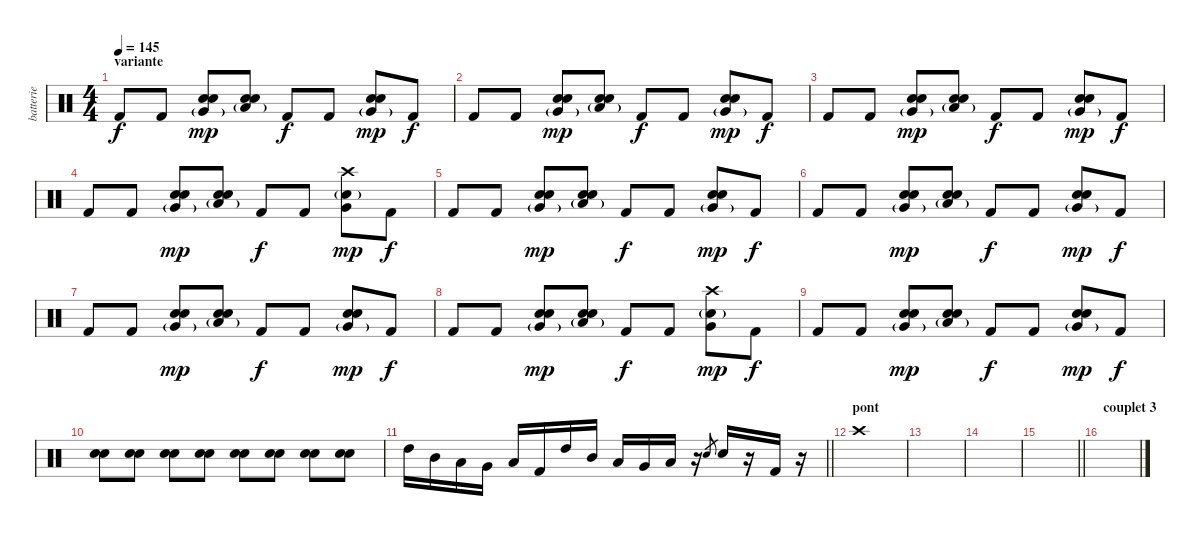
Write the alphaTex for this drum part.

\track ("batterie" "batterie") {instrument percussion}
\staff {score}
\articulation defaults
\ts (4 4)
\section ("" "variante")
\tempo 145
\clef neutral
\ks c "Kick (hit) 2".8{dy f} "Kick (hit) 2".8
("Very Low Tom (hit)"{g} "Electric Snare (hit)" "Snare (hit) 2").8{dy mp} ("Low Floor Tom (hit)"{g} "Electric Snare (hit)" "Snare (hit) 2").8 "Kick (hit) 2".8{dy f} "Kick (hit) 2".8 ("Very Low Tom (hit)"{g} "Electric Snare (hit)" "Snare (hit) 2").8{dy mp} "Kick (hit) 2".8{dy f} |
"Kick (hit) 2".8 "Kick (hit) 2".8 ("Very Low Tom (hit)"{g} "Electric Snare (hit)" "Snare (hit) 2").8{dy mp} ("Low Floor Tom (hit)"{g} "Electric Snare (hit)" "Snare (hit) 2").8 "Kick (hit) 2".8{dy f} "Kick (hit) 2".8 ("Very Low Tom (hit)"{g} "Electric Snare (hit)" "Snare (hit) 2").8{dy mp} "Kick (hit) 2".8{dy f} |
"Kick (hit) 2".8 "Kick (hit) 2".8 ("Very Low Tom (hit)"{g} "Electric Snare (hit)" "Snare (hit) 2").8{dy mp} ("Low Floor Tom (hit)"{g} "Electric Snare (hit)" "Snare (hit) 2").8 "Kick (hit) 2".8{dy f} "Kick (hit) 2".8 ("Very Low Tom (hit)"{g} "Electric Snare (hit)" "Snare (hit) 2").8{dy mp} "Kick (hit) 2".8{dy f} |
"Kick (hit) 2".8 "Kick (hit) 2".8 ("Very Low Tom (hit)"{g} "Electric Snare (hit)" "Snare (hit) 2").8{dy mp} ("Low Floor Tom (hit)"{g} "Electric Snare (hit)" "Snare (hit) 2").8 "Kick (hit) 2".8{dy f} "Kick (hit) 2".8 ("Crash high (hit)" "Very Low Tom (hit)" "Snare (hit) 2"{g}).8{dy mp} "Kick (hit) 2".8{dy f} |
"Kick (hit) 2".8 "Kick (hit) 2".8 ("Very Low Tom (hit)"{g} "Electric Snare (hit)" "Snare (hit) 2").8{dy mp} ("Low Floor Tom (hit)"{g} "Electric Snare (hit)" "Snare (hit) 2").8 "Kick (hit) 2".8{dy f} "Kick (hit) 2".8 ("Very Low Tom (hit)"{g} "Electric Snare (hit)" "Snare (hit) 2").8{dy mp} "Kick (hit) 2".8{dy f} |
"Kick (hit) 2".8 "Kick (hit) 2".8 ("Very Low Tom (hit)"{g} "Electric Snare (hit)" "Snare (hit) 2").8{dy mp} ("Low Floor Tom (hit)"{g} "Electric Snare (hit)" "Snare (hit) 2").8 "Kick (hit) 2".8{dy f} "Kick (hit) 2".8 ("Very Low Tom (hit)"{g} "Electric Snare (hit)" "Snare (hit) 2").8{dy mp} "Kick (hit) 2".8{dy f} |
"Kick (hit) 2".8 "Kick (hit) 2".8 ("Very Low Tom (hit)"{g} "Electric Snare (hit)" "Snare (hit) 2").8{dy mp} ("Low Floor Tom (hit)"{g} "Electric Snare (hit)" "Snare (hit) 2").8 "Kick (hit) 2".8{dy f} "Kick (hit) 2".8 ("Very Low Tom (hit)"{g} "Electric Snare (hit)" "Snare (hit) 2").8{dy mp} "Kick (hit) 2".8{dy f} |
"Kick (hit) 2".8 "Kick (hit) 2".8 ("Very Low Tom (hit)"{g} "Electric Snare (hit)" "Snare (hit) 2").8{dy mp} ("Low Floor Tom (hit)"{g} "Electric Snare (hit)" "Snare (hit) 2").8 "Kick (hit) 2".8{dy f} "Kick (hit) 2".8 ("Crash high (hit)" "Very Low Tom (hit)" "Snare (hit) 2"{g}).8{dy mp} "Kick (hit) 2".8{dy f} |
"Kick (hit) 2".8 "Kick (hit) 2".8 ("Very Low Tom (hit)"{g} "Electric Snare (hit)" "Snare (hit) 2").8{dy mp} ("Low Floor Tom (hit)"{g} "Electric Snare (hit)" "Snare (hit) 2").8 "Kick (hit) 2".8{dy f} "Kick (hit) 2".8 ("Very Low Tom (hit)"{g} "Electric Snare (hit)" "Snare (hit) 2").8{dy mp} "Kick (hit) 2".8{dy f} |
("Electric Snare (hit)" "Snare (hit) 2").8 ("Electric Snare (hit)" "Snare (hit) 2").8 ("Electric Snare (hit)" "Snare (hit) 2").8 ("Electric Snare (hit)" "Snare (hit) 2").8 ("Electric Snare (hit)" "Snare (hit) 2").8 ("Electric Snare (hit)" "Snare (hit) 2").8 ("Electric Snare (hit)" "Snare (hit) 2").8 ("Electric Snare (hit)" "Snare (hit) 2").8 |
\barLineRight lightlight "High Tom (hit)".16 "Mid Tom (hit)".16 "Low Tom (hit)".16 "Very Low Tom (hit)".16 "Low Floor Tom (hit)".16 "Kick (hit) 2".16 "High Tom (hit)".16 "Mid Tom (hit)".16 "Low Tom (hit)".16 "Very Low Tom (hit)".16 "Low Floor Tom (hit)".16
r.16 "Electric Snare (hit)".8{gr} "Electric Snare (hit)".16 r.16 "Kick (hit) 2".16 r.16 |
\section ("" "pont")
"Crash high (hit)".1 |
|
|
\barLineRight lightlight
|
\section ("" "couplet 3")
